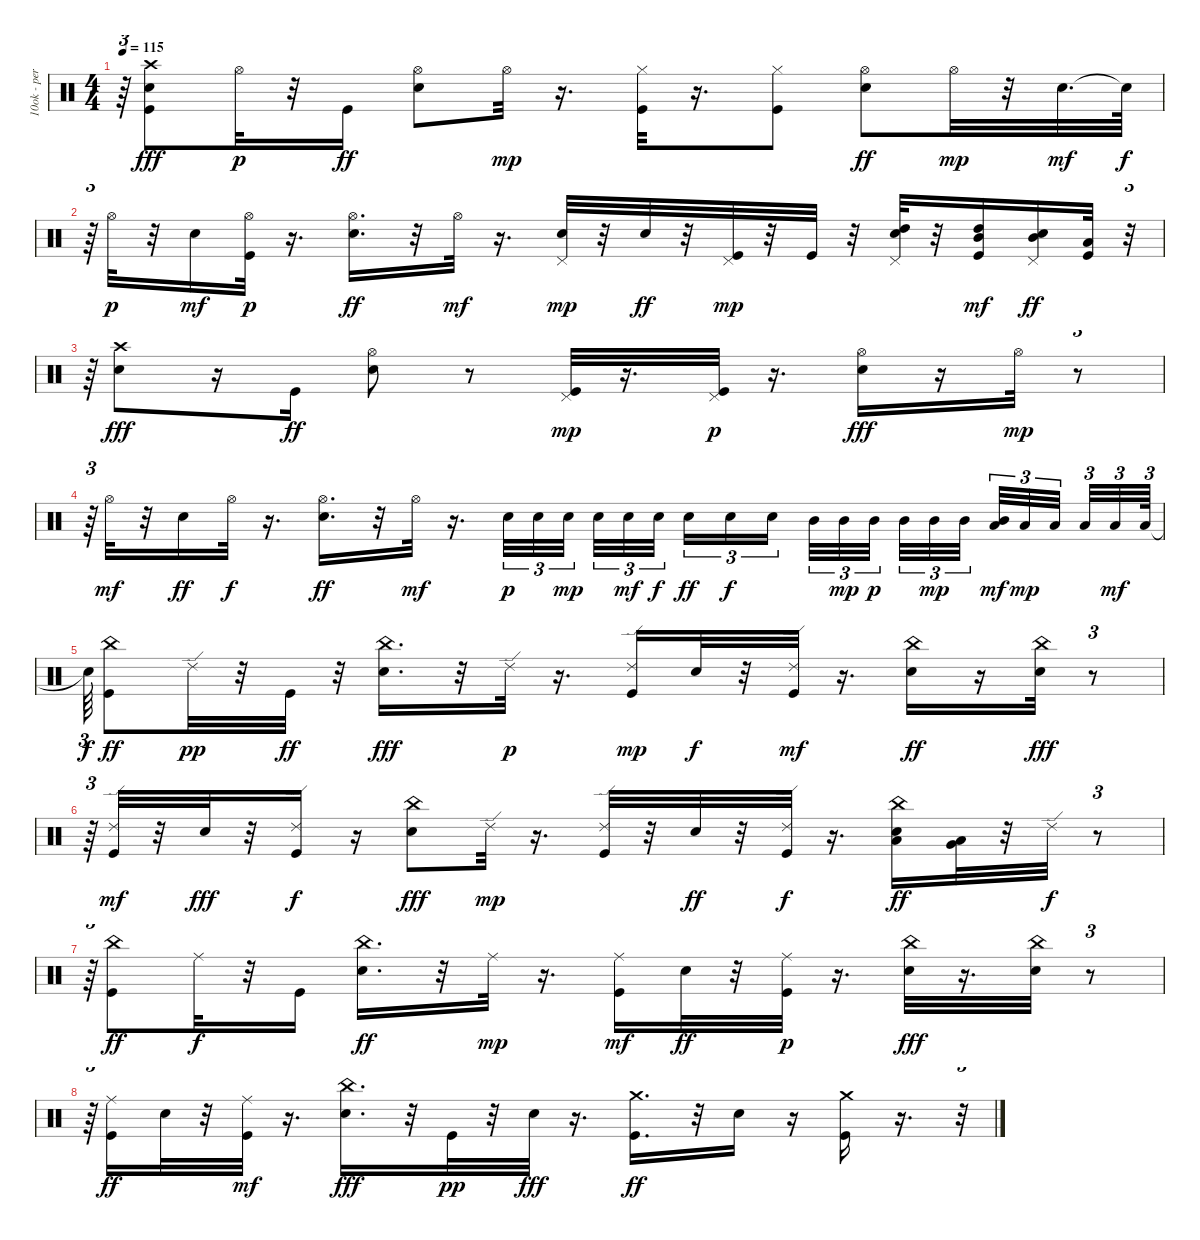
\track ("10ok - percussioni" "10ok - per") {instrument percussion}
\staff {score}
\articulation defaults
\ts (4 4)
\tempo 115
\clef neutral
\ks c
r.64{tu (3 2) dy ff} ("Snare (hit) 2" "Crash high (hit)" "Kick (hit)").8{dy fff} "Hi-Hat (open)".32{dy p} r.32 "Kick (hit)".16{dy ff} ("Hi-Hat (open)" "Snare (hit) 2").8 "Hi-Hat (open)".32{dy mp} r.16{d} ("Hi-Hat (closed)" "Kick (hit)").32 r.16{d} ("Hi-Hat (closed)" "Kick (hit)").8 ("Hi-Hat (open)" "Snare (hit) 2").8{dy ff} "Hi-Hat (open)".32{dy mp} r.32 "Snare (hit) 2".32{d dy mf} "Snare (hit)"{t}.64{dy f} |
r.64{tu (3 2)} "Hi-Hat (open)".32{dy p} r.32 "Snare (hit) 2".16{dy mf} ("Hi-Hat (open)" "Kick (hit)").32{dy p} r.16{d} ("Hi-Hat (open)" "Snare (hit) 2").16{d dy ff} r.32 "Hi-Hat (open)".32{dy mf} r.16{d} ("Pedal Hi-Hat (hit)" "Snare (hit) 2").32{dy mp} r.32 "Snare (hit) 2".32{dy ff} r.32 ("Pedal Hi-Hat (hit)" "Kick (hit)").32{dy mp} r.32 "Kick (hit)".32 r.32 ("Pedal Hi-Hat (hit)" "Snare (hit) 2" "High Tom (hit)").32 r.32 ("Mid Tom (hit)" "Kick (hit)" "High Tom (hit)").16{dy mf} ("Pedal Hi-Hat (hit)" "Snare (hit) 2" "Mid Tom (hit)").16{dy ff} ("Kick (hit)" "Low Tom (hit)").32 r.32{tu (3 2)} |
r.64{tu (3 2)} ("Crash high (hit)" "Snare (hit) 2").8{dy fff} r.16 "Kick (hit)".16{dy ff} ("Hi-Hat (open)" "Snare (hit) 2").8 r.8 ("Pedal Hi-Hat (hit)" "Kick (hit)").32{dy mp} r.16{d} ("Pedal Hi-Hat (hit)" "Kick (hit)").32{dy p} r.16{d} ("Hi-Hat (open)" "Snare (hit) 2").16{dy fff} r.16 "Hi-Hat (open)".32{dy mp} r.8{tu (3 2)} |
r.64{tu (3 2)} "Hi-Hat (open)".32{dy mf} r.32 "Snare (hit) 2".16{dy ff} "Hi-Hat (open)".32{dy f} r.16{d} ("Hi-Hat (open)" "Snare (hit) 2").16{d dy ff} r.32 "Hi-Hat (open)".32{dy mf} r.16{d} "Snare (hit) 2".32{tu (3 2) dy p} "Snare (hit) 2".32{tu (3 2)} "Snare (hit) 2".32{tu (3 2) dy mp beam splitsecondary} "Snare (hit) 2".32{tu (3 2)} "Snare (hit) 2".32{tu (3 2) dy mf} "Snare (hit) 2".32{tu (3 2) dy f beam splitsecondary} "Snare (hit) 2".16{tu (3 2) dy ff} "Snare (hit) 2".16{tu (3 2) dy f} "Snare (hit) 2".16{tu (3 2)} "Mid Tom (hit)".32{tu (3 2)} "Mid Tom (hit)".32{tu (3 2) dy mp} "Mid Tom (hit)".32{tu (3 2) dy p beam splitsecondary} "Mid Tom (hit)".32{tu (3 2)} "Mid Tom (hit)".32{tu (3 2) dy mp} "Mid Tom (hit)".32{tu (3 2) beam splitsecondary} ("Mid Tom (hit)" "Low Tom (hit)").32{tu (3 2) dy mf} "Low Tom (hit)".32{tu (3 2) dy mp} "Low Tom (hit)".32{tu (3 2) beam splitsecondary} "Low Tom (hit)".32{tu (3 2)} "Low Tom (hit)".32{tu (3 2) dy mf} "Low Tom (hit)".64{tu (3 2)} |
"Snare (hit)"{t}.64{tu (3 2) dy f} ("China (hit)" "Kick (hit)").8{dy ff} "Ride (edge) 2".32{dy pp} r.32 "Kick (hit)".32{dy ff} r.32 ("China (hit)" "Snare (hit) 2").16{d dy fff} r.32 "Ride (edge) 2".32{dy p} r.16{d} ("Ride (edge) 2" "Kick (hit)").16{dy mp} "Snare (hit) 2".32{dy f} r.32 ("Ride (edge) 2" "Kick (hit)").32{dy mf} r.16{d} ("Snare (hit) 2" "China (hit)").16{dy ff} r.16 ("China (hit)" "Snare (hit) 2").32{dy fff} r.8{tu (3 2)} |
r.64{tu (3 2)} ("Ride (edge) 2" "Kick (hit)").32{dy mf} r.32 "Snare (hit) 2".32{dy fff} r.32 ("Ride (edge) 2" "Kick (hit)").16{dy f} r.16 ("China (hit)" "Snare (hit) 2").8{dy fff} "Ride (edge) 2".32{dy mp} r.16{d} ("Ride (edge) 2" "Kick (hit)").32 r.32 "Snare (hit) 2".32{dy ff} r.32 ("Ride (edge) 2" "Kick (hit)").32{dy f} r.16{d} ("China (hit)" "Snare (hit) 2" "Low Tom (hit)").16{dy ff} ("Very Low Tom (hit)" "Low Tom (hit)").32 r.32 "Ride (edge) 2".32{dy f} r.8{tu (3 2)} |
r.64{tu (3 2)} ("China (hit)" "Kick (hit)").8{dy ff} "Ride (middle)".32{dy f} r.32 "Kick (hit)".16 ("China (hit)" "Snare (hit) 2").16{d dy ff} r.32 "Ride (middle)".32{dy mp} r.16{d} ("Ride (middle)" "Kick (hit)").16{dy mf} "Snare (hit) 2".32{dy ff} r.32 ("Ride (middle)" "Kick (hit)").32{dy p} r.16{d} ("China (hit)" "Snare (hit) 2").32{dy fff} r.16{d} ("China (hit)" "Snare (hit) 2").32 r.8{tu (3 2)} |
r.64{tu (3 2)} ("Ride (middle)" "Kick (hit)").16{dy ff} "Snare (hit) 2".32 r.32 ("Ride (middle)" "Kick (hit)").32{dy mf} r.16{d} ("Snare (hit) 2" "China (hit)").16{d dy fff} r.32 "Kick (hit)".32{dy pp} r.32 "Snare (hit) 2".32{dy fff} r.16{d} ("Crash medium (hit)" "Kick (hit)").16{d dy ff} r.32 "Snare (hit) 2".16 r.16 ("Crash medium (hit)" "Kick (hit)").16 r.16{d} r.32{tu (3 2)}
